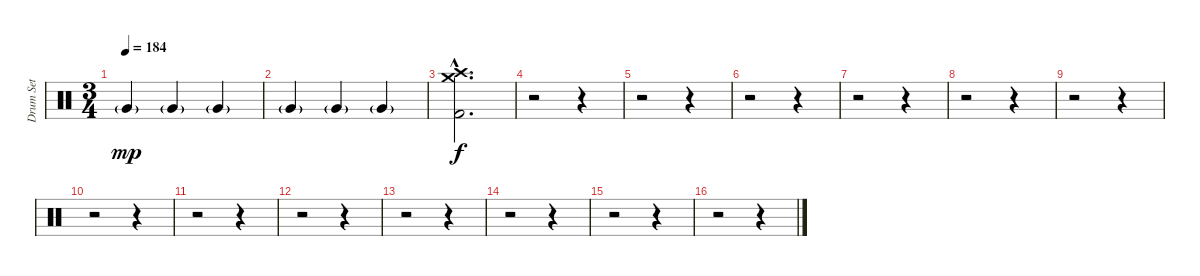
\track ("Drum Set" "Drum Set") {instrument percussion}
\staff {score}
\articulation defaults
\ts (3 4)
\tempo 184
\clef neutral
\ks c "Very Low Tom (hit)"{g}.4{dy mp} "Very Low Tom (hit)"{g}.4 "Very Low Tom (hit)"{g}.4
|
"Very Low Tom (hit)"{g}.4 "Very Low Tom (hit)"{g}.4 "Very Low Tom (hit)"{g}.4 |
("Crash medium (hit)"{hac} "Crash high (hit)"{hac} "Kick (hit) 2"{hac}).2{d dy f} |
r.2 r.4 |
r.2 r.4 |
r.2 r.4 |
r.2 r.4 |
r.2 r.4 |
r.2 r.4 |
r.2 r.4 |
r.2 r.4 |
r.2 r.4 |
r.2 r.4 |
r.2 r.4 |
r.2 r.4 |
r.2 r.4
